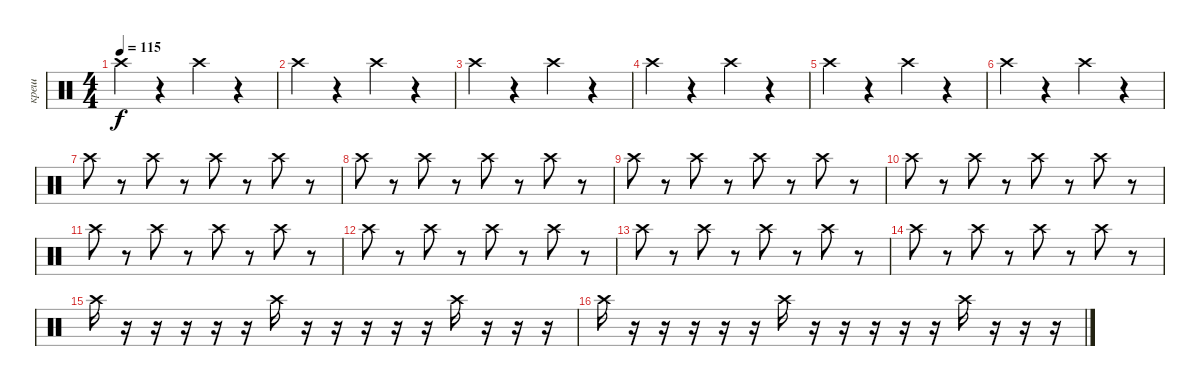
\track ("креш" "креш") {mute instrument percussion}
\staff {score}
\articulation defaults
\ts (4 4)
\tempo 115
\clef neutral
\ks c "Crash high (hit)".4{dy f}
r.4 "Crash high (hit)".4 r.4 |
"Crash high (hit)".4 r.4 "Crash high (hit)".4 r.4 |
"Crash high (hit)".4 r.4 "Crash high (hit)".4 r.4 |
"Crash high (hit)".4 r.4 "Crash high (hit)".4 r.4 |
"Crash high (hit)".4 r.4 "Crash high (hit)".4 r.4 |
"Crash high (hit)".4 r.4 "Crash high (hit)".4 r.4 |
"Crash high (hit)".8 r.8 "Crash high (hit)".8 r.8 "Crash high (hit)".8 r.8 "Crash high (hit)".8 r.8 |
"Crash high (hit)".8 r.8 "Crash high (hit)".8 r.8 "Crash high (hit)".8 r.8 "Crash high (hit)".8 r.8 |
"Crash high (hit)".8 r.8 "Crash high (hit)".8 r.8 "Crash high (hit)".8 r.8 "Crash high (hit)".8 r.8 |
"Crash high (hit)".8 r.8 "Crash high (hit)".8 r.8 "Crash high (hit)".8 r.8 "Crash high (hit)".8 r.8 |
"Crash high (hit)".8 r.8 "Crash high (hit)".8 r.8 "Crash high (hit)".8 r.8 "Crash high (hit)".8 r.8 |
"Crash high (hit)".8 r.8 "Crash high (hit)".8 r.8 "Crash high (hit)".8 r.8 "Crash high (hit)".8 r.8 |
"Crash high (hit)".8 r.8 "Crash high (hit)".8 r.8 "Crash high (hit)".8 r.8 "Crash high (hit)".8 r.8 |
"Crash high (hit)".8 r.8 "Crash high (hit)".8 r.8 "Crash high (hit)".8 r.8 "Crash high (hit)".8 r.8 |
"Crash high (hit)".16 r.16 r.16 r.16 r.16 r.16 "Crash high (hit)".16 r.16 r.16 r.16 r.16 r.16 "Crash high (hit)".16 r.16 r.16 r.16 |
"Crash high (hit)".16 r.16 r.16 r.16 r.16 r.16 "Crash high (hit)".16 r.16 r.16 r.16 r.16 r.16 "Crash high (hit)".16 r.16 r.16 r.16
